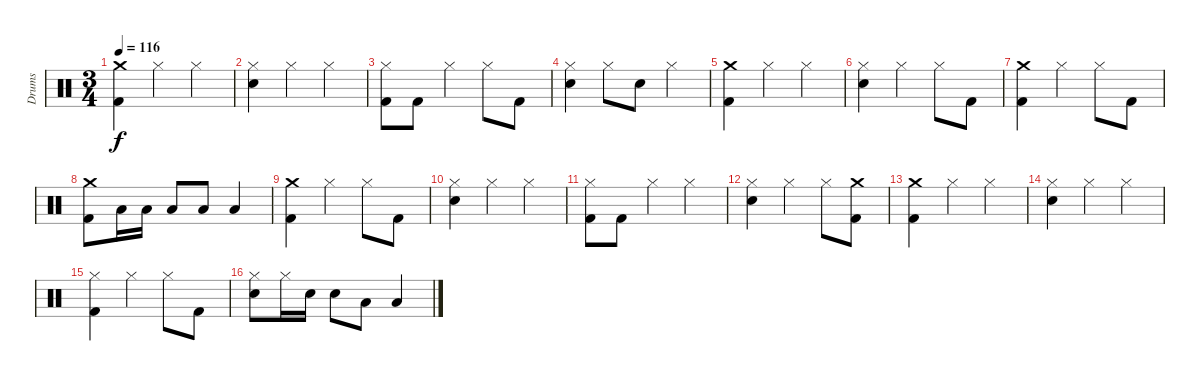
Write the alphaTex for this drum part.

\track ("Drums" "Drums") {instrument percussion}
\staff {score}
\articulation defaults
\ts (3 4)
\tempo 116
\clef neutral
\ks c
("Kick (hit) 2" "Crash medium (hit)").4{dy f} "Hi-Hat (closed)".4 "Hi-Hat (closed)".4 |
("Electric Snare (hit)" "Hi-Hat (closed)").4 "Hi-Hat (closed)".4 "Hi-Hat (closed)".4 |
("Kick (hit) 2" "Hi-Hat (closed)").8 "Kick (hit) 2".8 "Hi-Hat (closed)".4 "Hi-Hat (closed)".8 "Kick (hit) 2".8 |
("Electric Snare (hit)" "Hi-Hat (closed)").4 "Hi-Hat (closed)".8 "Electric Snare (hit)".8 "Hi-Hat (closed)".4 |
("Kick (hit) 2" "Crash medium (hit)").4 "Hi-Hat (closed)".4 "Hi-Hat (closed)".4 |
("Electric Snare (hit)" "Hi-Hat (closed)").4 "Hi-Hat (closed)".4 "Hi-Hat (closed)".8 "Kick (hit) 2".8 |
("Kick (hit) 2" "Crash medium (hit)").4 "Hi-Hat (closed)".4 "Hi-Hat (closed)".8 "Kick (hit) 2".8 |
("Kick (hit) 2" "Crash medium (hit)").8 "Low Tom (hit)".16 "Low Tom (hit)".16 "Low Tom (hit)".8 "Low Tom (hit)".8 "Low Tom (hit)".4 |
("Kick (hit) 2" "Crash medium (hit)").4 "Hi-Hat (closed)".4 "Hi-Hat (closed)".8 "Kick (hit) 2".8 |
("Electric Snare (hit)" "Hi-Hat (closed)").4 "Hi-Hat (closed)".4 "Hi-Hat (closed)".4 |
("Kick (hit) 2" "Hi-Hat (closed)").8 "Kick (hit) 2".8 "Hi-Hat (closed)".4 "Hi-Hat (closed)".4 |
("Electric Snare (hit)" "Hi-Hat (closed)").4 "Hi-Hat (closed)".4 "Hi-Hat (closed)".8 ("Kick (hit) 2" "Crash medium (hit)").8 |
("Kick (hit) 2" "Crash medium (hit)").4 "Hi-Hat (closed)".4 "Hi-Hat (closed)".4 |
("Electric Snare (hit)" "Hi-Hat (closed)").4 "Hi-Hat (closed)".4 "Hi-Hat (closed)".4 |
("Kick (hit) 2" "Hi-Hat (closed)").4 "Hi-Hat (closed)".4 "Hi-Hat (closed)".8 "Kick (hit) 2".8 |
("Electric Snare (hit)" "Hi-Hat (closed)").8 "Hi-Hat (closed)".16 "Electric Snare (hit)".16 "Electric Snare (hit)".8 "Low Tom (hit)".8 "Low Tom (hit)".4
